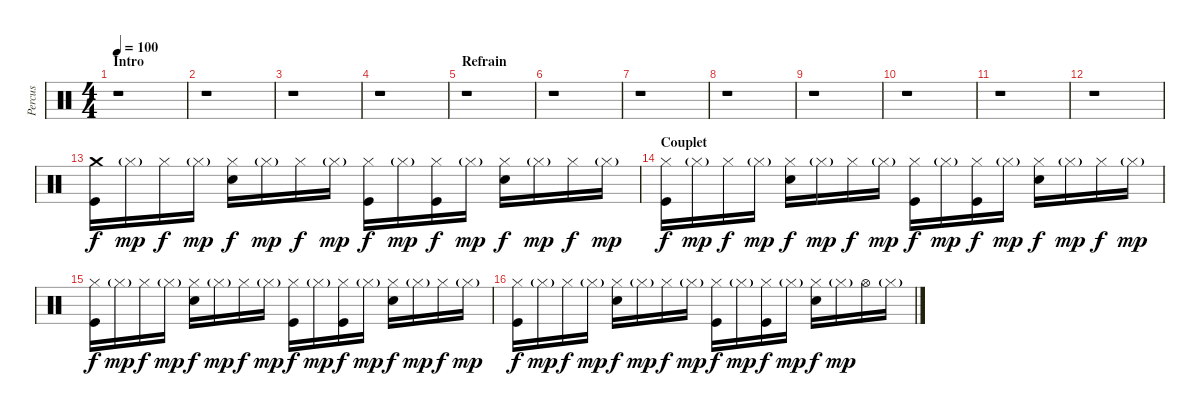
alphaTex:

\track ("Percus" "Percus") {instrument percussion}
\staff {score}
\articulation defaults
\ts (4 4)
\section ("" "Intro")
\tempo 100
\clef neutral
\ks c
r.1{dy f} |
r.1 |
r.1 |
r.1 |
\section ("" "Refrain")
r.1 |
r.1 |
r.1 |
r.1 |
r.1 |
r.1 |
r.1 |
r.1 |
("Crash medium (hit)" "Kick (hit)").16 "Hi-Hat (closed)"{g}.16{dy mp} "Hi-Hat (closed)".16{dy f} "Hi-Hat (closed)"{g}.16{dy mp} ("Hi-Hat (closed)" "Snare (hit) 2").16{dy f} "Hi-Hat (closed)"{g}.16{dy mp} "Hi-Hat (closed)".16{dy f} "Hi-Hat (closed)"{g}.16{dy mp} ("Hi-Hat (closed)" "Kick (hit)").16{dy f} "Hi-Hat (closed)"{g}.16{dy mp} ("Hi-Hat (closed)" "Kick (hit)").16{dy f} "Hi-Hat (closed)"{g}.16{dy mp} ("Hi-Hat (closed)" "Snare (hit) 2").16{dy f} "Hi-Hat (closed)"{g}.16{dy mp} "Hi-Hat (closed)".16{dy f} "Hi-Hat (closed)"{g}.16{dy mp} |
\section ("" "Couplet")
("Hi-Hat (closed)" "Kick (hit)").16{dy f} "Hi-Hat (closed)"{g}.16{dy mp} "Hi-Hat (closed)".16{dy f} "Hi-Hat (closed)"{g}.16{dy mp} ("Hi-Hat (closed)" "Snare (hit) 2").16{dy f} "Hi-Hat (closed)"{g}.16{dy mp} "Hi-Hat (closed)".16{dy f} "Hi-Hat (closed)"{g}.16{dy mp} ("Hi-Hat (closed)" "Kick (hit)").16{dy f} "Hi-Hat (closed)"{g}.16{dy mp} ("Hi-Hat (closed)" "Kick (hit)").16{dy f} "Hi-Hat (closed)"{g}.16{dy mp} ("Hi-Hat (closed)" "Snare (hit) 2").16{dy f} "Hi-Hat (closed)"{g}.16{dy mp} "Hi-Hat (closed)".16{dy f} "Hi-Hat (closed)"{g}.16{dy mp} |
("Hi-Hat (closed)" "Kick (hit)").16{dy f} "Hi-Hat (closed)"{g}.16{dy mp} "Hi-Hat (closed)".16{dy f} "Hi-Hat (closed)"{g}.16{dy mp} ("Hi-Hat (closed)" "Snare (hit) 2").16{dy f} "Hi-Hat (closed)"{g}.16{dy mp} "Hi-Hat (closed)".16{dy f} "Hi-Hat (closed)"{g}.16{dy mp} ("Hi-Hat (closed)" "Kick (hit)").16{dy f} "Hi-Hat (closed)"{g}.16{dy mp} ("Hi-Hat (closed)" "Kick (hit)").16{dy f} "Hi-Hat (closed)"{g}.16{dy mp} ("Hi-Hat (closed)" "Snare (hit) 2").16{dy f} "Hi-Hat (closed)"{g}.16{dy mp} "Hi-Hat (closed)".16{dy f} "Hi-Hat (closed)"{g}.16{dy mp} |
("Hi-Hat (closed)" "Kick (hit)").16{dy f} "Hi-Hat (closed)"{g}.16{dy mp} "Hi-Hat (closed)".16{dy f} "Hi-Hat (closed)"{g}.16{dy mp} ("Hi-Hat (closed)" "Snare (hit) 2").16{dy f} "Hi-Hat (closed)"{g}.16{dy mp} "Hi-Hat (closed)".16{dy f} "Hi-Hat (closed)"{g}.16{dy mp} ("Hi-Hat (closed)" "Kick (hit)").16{dy f} "Hi-Hat (closed)"{g}.16{dy mp} ("Hi-Hat (closed)" "Kick (hit)").16{dy f} "Hi-Hat (closed)"{g}.16{dy mp} ("Hi-Hat (closed)" "Snare (hit) 2").16{dy f} "Hi-Hat (closed)"{g}.16{dy mp} "Hi-Hat (open)".16 "Hi-Hat (closed)"{g}.16
